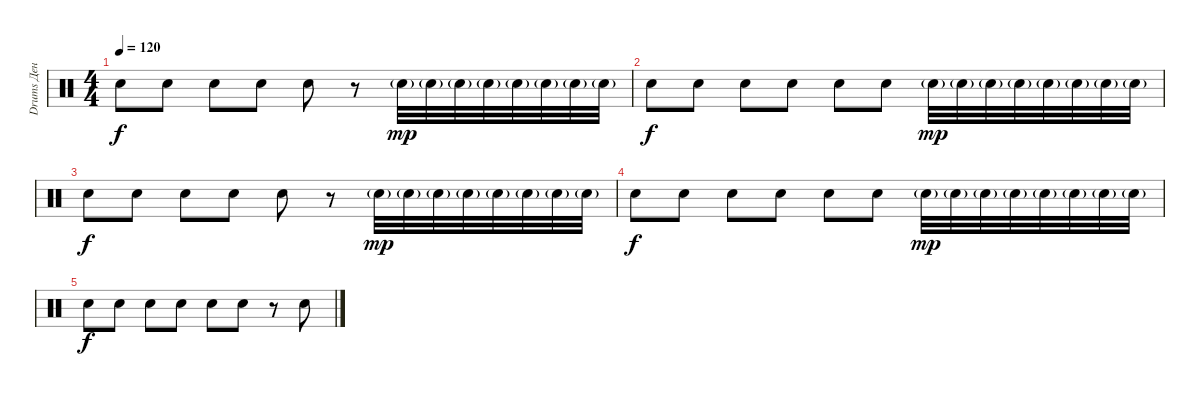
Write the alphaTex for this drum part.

\track ("Drums Ден" "Drums Ден") {instrument percussion}
\staff {score}
\articulation defaults
\ts (4 4)
\tempo 120
\clef neutral
\ks c "Electric Snare (hit)".8{dy f} "Electric Snare (hit)".8 "Electric Snare (hit)".8 "Electric Snare (hit)".8 "Electric Snare (hit)".8
r.8 "Electric Snare (hit)"{g}.32{dy mp} "Electric Snare (hit)"{g}.32 "Electric Snare (hit)"{g}.32 "Electric Snare (hit)"{g}.32 "Electric Snare (hit)"{g}.32 "Electric Snare (hit)"{g}.32 "Electric Snare (hit)"{g}.32 "Electric Snare (hit)"{g}.32 |
"Electric Snare (hit)".8{dy f} "Electric Snare (hit)".8 "Electric Snare (hit)".8 "Electric Snare (hit)".8 "Electric Snare (hit)".8 "Electric Snare (hit)".8 "Electric Snare (hit)"{g}.32{dy mp} "Electric Snare (hit)"{g}.32 "Electric Snare (hit)"{g}.32 "Electric Snare (hit)"{g}.32 "Electric Snare (hit)"{g}.32 "Electric Snare (hit)"{g}.32 "Electric Snare (hit)"{g}.32 "Electric Snare (hit)"{g}.32 |
"Electric Snare (hit)".8{dy f} "Electric Snare (hit)".8 "Electric Snare (hit)".8 "Electric Snare (hit)".8 "Electric Snare (hit)".8 r.8 "Electric Snare (hit)"{g}.32{dy mp} "Electric Snare (hit)"{g}.32 "Electric Snare (hit)"{g}.32 "Electric Snare (hit)"{g}.32 "Electric Snare (hit)"{g}.32 "Electric Snare (hit)"{g}.32 "Electric Snare (hit)"{g}.32 "Electric Snare (hit)"{g}.32 |
"Electric Snare (hit)".8{dy f} "Electric Snare (hit)".8 "Electric Snare (hit)".8 "Electric Snare (hit)".8 "Electric Snare (hit)".8 "Electric Snare (hit)".8 "Electric Snare (hit)"{g}.32{dy mp} "Electric Snare (hit)"{g}.32 "Electric Snare (hit)"{g}.32 "Electric Snare (hit)"{g}.32 "Electric Snare (hit)"{g}.32 "Electric Snare (hit)"{g}.32 "Electric Snare (hit)"{g}.32 "Electric Snare (hit)"{g}.32 |
"Electric Snare (hit)".8{dy f} "Electric Snare (hit)".8 "Electric Snare (hit)".8 "Electric Snare (hit)".8 "Electric Snare (hit)".8 "Electric Snare (hit)".8 r.8 "Electric Snare (hit)".8
